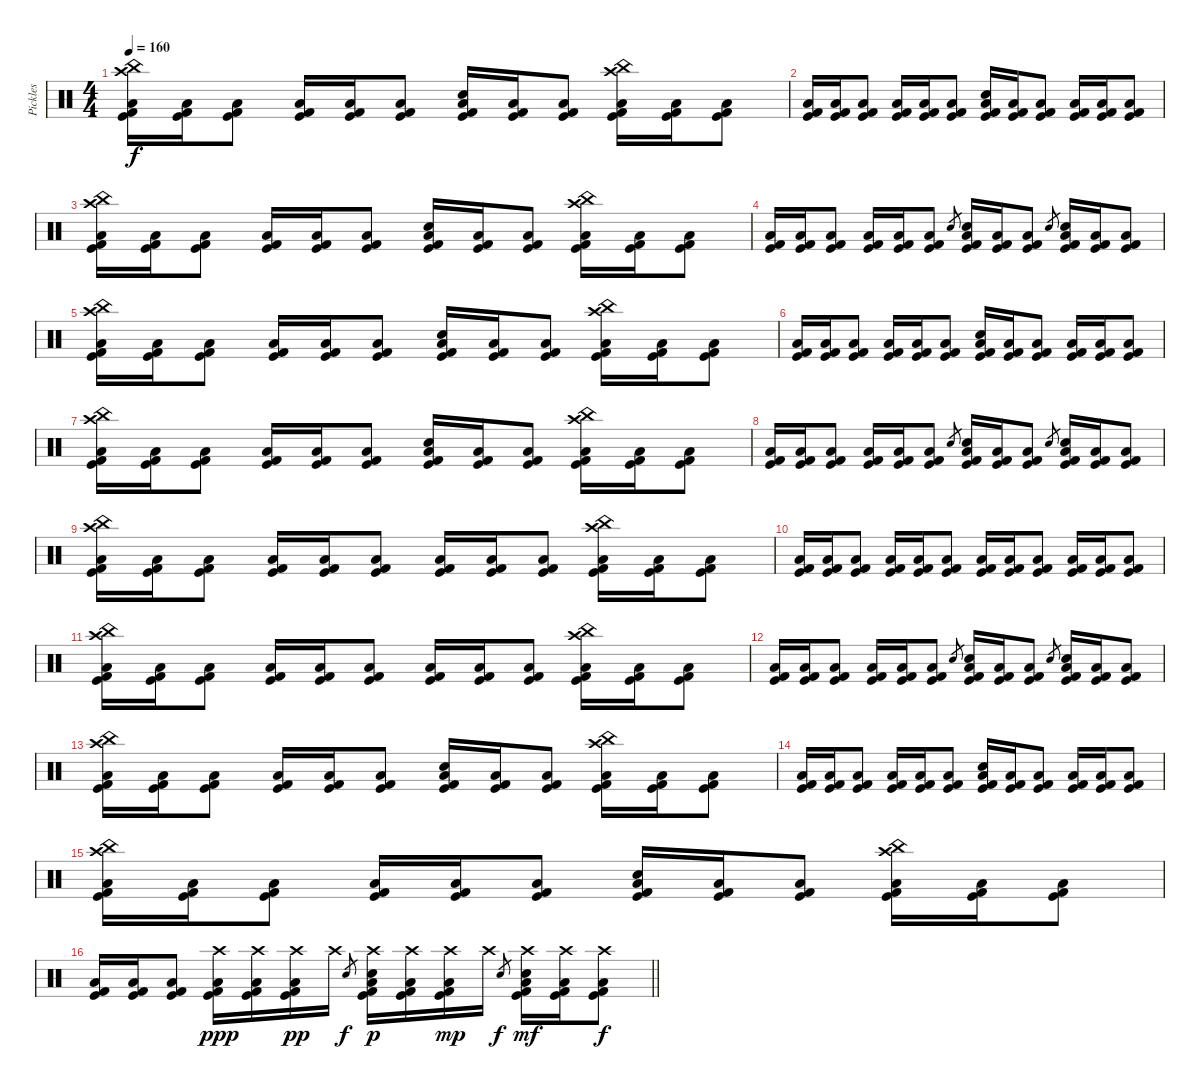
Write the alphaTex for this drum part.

\track ("Pickles" "Pickles") {instrument percussion}
\staff {score}
\articulation defaults
\ts (4 4)
\tempo 160
\clef neutral
\ks c
("Kick (hit) 2" "Kick (hit)" "Low Tom (hit)" "China (hit)" "Crash high (hit)").16{dy f} ("Kick (hit) 2" "Kick (hit)" "Low Tom (hit)").16 ("Kick (hit) 2" "Kick (hit)" "Low Tom (hit)").8 ("Kick (hit) 2" "Kick (hit)" "Low Tom (hit)").16 ("Kick (hit) 2" "Kick (hit)" "Low Tom (hit)").16 ("Kick (hit) 2" "Kick (hit)" "Low Tom (hit)").8 ("Kick (hit) 2" "Kick (hit)" "Low Tom (hit)" "Electric Snare (hit)").16 ("Kick (hit) 2" "Kick (hit)" "Low Tom (hit)").16 ("Kick (hit) 2" "Kick (hit)" "Low Tom (hit)").8 ("Kick (hit) 2" "Kick (hit)" "Low Tom (hit)" "China (hit)" "Crash high (hit)").16 ("Kick (hit) 2" "Kick (hit)" "Low Tom (hit)").16 ("Kick (hit) 2" "Kick (hit)" "Low Tom (hit)").8 |
("Kick (hit) 2" "Kick (hit)" "Low Tom (hit)").16 ("Kick (hit) 2" "Kick (hit)" "Low Tom (hit)").16 ("Kick (hit) 2" "Kick (hit)" "Low Tom (hit)").8 ("Kick (hit) 2" "Kick (hit)" "Low Tom (hit)").16 ("Kick (hit) 2" "Kick (hit)" "Low Tom (hit)").16 ("Kick (hit) 2" "Kick (hit)" "Low Tom (hit)").8 ("Kick (hit) 2" "Kick (hit)" "Low Tom (hit)" "Electric Snare (hit)").16 ("Kick (hit) 2" "Kick (hit)" "Low Tom (hit)").16 ("Kick (hit) 2" "Kick (hit)" "Low Tom (hit)").8 ("Kick (hit) 2" "Kick (hit)" "Low Tom (hit)").16 ("Kick (hit) 2" "Kick (hit)" "Low Tom (hit)").16 ("Kick (hit) 2" "Kick (hit)" "Low Tom (hit)").8 |
("Kick (hit) 2" "Kick (hit)" "Low Tom (hit)" "China (hit)" "Crash high (hit)").16 ("Kick (hit) 2" "Kick (hit)" "Low Tom (hit)").16 ("Kick (hit) 2" "Kick (hit)" "Low Tom (hit)").8 ("Kick (hit) 2" "Kick (hit)" "Low Tom (hit)").16 ("Kick (hit) 2" "Kick (hit)" "Low Tom (hit)").16 ("Kick (hit) 2" "Kick (hit)" "Low Tom (hit)").8 ("Kick (hit) 2" "Kick (hit)" "Low Tom (hit)" "Electric Snare (hit)").16 ("Kick (hit) 2" "Kick (hit)" "Low Tom (hit)").16 ("Kick (hit) 2" "Kick (hit)" "Low Tom (hit)").8 ("Kick (hit) 2" "Kick (hit)" "Low Tom (hit)" "China (hit)" "Crash high (hit)").16 ("Kick (hit) 2" "Kick (hit)" "Low Tom (hit)").16 ("Kick (hit) 2" "Kick (hit)" "Low Tom (hit)").8 |
("Kick (hit) 2" "Kick (hit)" "Low Tom (hit)").16 ("Kick (hit) 2" "Kick (hit)" "Low Tom (hit)").16 ("Kick (hit) 2" "Kick (hit)" "Low Tom (hit)").8 ("Kick (hit) 2" "Kick (hit)" "Low Tom (hit)").16 ("Kick (hit) 2" "Kick (hit)" "Low Tom (hit)").16 ("Kick (hit) 2" "Kick (hit)" "Low Tom (hit)").8 "Electric Snare (hit)".8{gr} ("Kick (hit) 2" "Kick (hit)" "Low Tom (hit)" "Electric Snare (hit)").16 ("Kick (hit) 2" "Kick (hit)" "Low Tom (hit)").16 ("Kick (hit) 2" "Kick (hit)" "Low Tom (hit)").8 "Electric Snare (hit)".8{gr} ("Kick (hit) 2" "Kick (hit)" "Low Tom (hit)" "Electric Snare (hit)").16 ("Kick (hit) 2" "Kick (hit)" "Low Tom (hit)").16 ("Kick (hit) 2" "Kick (hit)" "Low Tom (hit)").8 |
("Kick (hit) 2" "Kick (hit)" "Low Tom (hit)" "China (hit)" "Crash high (hit)").16 ("Kick (hit) 2" "Kick (hit)" "Low Tom (hit)").16 ("Kick (hit) 2" "Kick (hit)" "Low Tom (hit)").8 ("Kick (hit) 2" "Kick (hit)" "Low Tom (hit)").16 ("Kick (hit) 2" "Kick (hit)" "Low Tom (hit)").16 ("Kick (hit) 2" "Kick (hit)" "Low Tom (hit)").8 ("Kick (hit) 2" "Kick (hit)" "Low Tom (hit)" "Electric Snare (hit)").16 ("Kick (hit) 2" "Kick (hit)" "Low Tom (hit)").16 ("Kick (hit) 2" "Kick (hit)" "Low Tom (hit)").8 ("Kick (hit) 2" "Kick (hit)" "Low Tom (hit)" "China (hit)" "Crash high (hit)").16 ("Kick (hit) 2" "Kick (hit)" "Low Tom (hit)").16 ("Kick (hit) 2" "Kick (hit)" "Low Tom (hit)").8 |
("Kick (hit) 2" "Kick (hit)" "Low Tom (hit)").16 ("Kick (hit) 2" "Kick (hit)" "Low Tom (hit)").16 ("Kick (hit) 2" "Kick (hit)" "Low Tom (hit)").8 ("Kick (hit) 2" "Kick (hit)" "Low Tom (hit)").16 ("Kick (hit) 2" "Kick (hit)" "Low Tom (hit)").16 ("Kick (hit) 2" "Kick (hit)" "Low Tom (hit)").8 ("Kick (hit) 2" "Kick (hit)" "Low Tom (hit)" "Electric Snare (hit)").16 ("Kick (hit) 2" "Kick (hit)" "Low Tom (hit)").16 ("Kick (hit) 2" "Kick (hit)" "Low Tom (hit)").8 ("Kick (hit) 2" "Kick (hit)" "Low Tom (hit)").16 ("Kick (hit) 2" "Kick (hit)" "Low Tom (hit)").16 ("Kick (hit) 2" "Kick (hit)" "Low Tom (hit)").8 |
("Kick (hit) 2" "Kick (hit)" "Low Tom (hit)" "China (hit)" "Crash high (hit)").16 ("Kick (hit) 2" "Kick (hit)" "Low Tom (hit)").16 ("Kick (hit) 2" "Kick (hit)" "Low Tom (hit)").8 ("Kick (hit) 2" "Kick (hit)" "Low Tom (hit)").16 ("Kick (hit) 2" "Kick (hit)" "Low Tom (hit)").16 ("Kick (hit) 2" "Kick (hit)" "Low Tom (hit)").8 ("Kick (hit) 2" "Kick (hit)" "Low Tom (hit)" "Electric Snare (hit)").16 ("Kick (hit) 2" "Kick (hit)" "Low Tom (hit)").16 ("Kick (hit) 2" "Kick (hit)" "Low Tom (hit)").8 ("Kick (hit) 2" "Kick (hit)" "Low Tom (hit)" "China (hit)" "Crash high (hit)").16 ("Kick (hit) 2" "Kick (hit)" "Low Tom (hit)").16 ("Kick (hit) 2" "Kick (hit)" "Low Tom (hit)").8 |
("Kick (hit) 2" "Kick (hit)" "Low Tom (hit)").16 ("Kick (hit) 2" "Kick (hit)" "Low Tom (hit)").16 ("Kick (hit) 2" "Kick (hit)" "Low Tom (hit)").8 ("Kick (hit) 2" "Kick (hit)" "Low Tom (hit)").16 ("Kick (hit) 2" "Kick (hit)" "Low Tom (hit)").16 ("Kick (hit) 2" "Kick (hit)" "Low Tom (hit)").8 "Electric Snare (hit)".8{gr} ("Kick (hit) 2" "Kick (hit)" "Low Tom (hit)" "Electric Snare (hit)").16 ("Kick (hit) 2" "Kick (hit)" "Low Tom (hit)").16 ("Kick (hit) 2" "Kick (hit)" "Low Tom (hit)").8 "Electric Snare (hit)".8{gr} ("Kick (hit) 2" "Kick (hit)" "Low Tom (hit)" "Electric Snare (hit)").16 ("Kick (hit) 2" "Kick (hit)" "Low Tom (hit)").16 ("Kick (hit) 2" "Kick (hit)" "Low Tom (hit)").8 |
("Kick (hit) 2" "Kick (hit)" "Low Tom (hit)" "China (hit)" "Crash high (hit)").16 ("Kick (hit) 2" "Kick (hit)" "Low Tom (hit)").16 ("Kick (hit) 2" "Kick (hit)" "Low Tom (hit)").8 ("Kick (hit) 2" "Kick (hit)" "Low Tom (hit)").16 ("Kick (hit) 2" "Kick (hit)" "Low Tom (hit)").16 ("Kick (hit) 2" "Kick (hit)" "Low Tom (hit)").8 ("Kick (hit) 2" "Kick (hit)" "Low Tom (hit)").16 ("Kick (hit) 2" "Kick (hit)" "Low Tom (hit)").16 ("Kick (hit) 2" "Kick (hit)" "Low Tom (hit)").8 ("Kick (hit) 2" "Kick (hit)" "Low Tom (hit)" "China (hit)" "Crash high (hit)").16 ("Kick (hit) 2" "Kick (hit)" "Low Tom (hit)").16 ("Kick (hit) 2" "Kick (hit)" "Low Tom (hit)").8 |
("Kick (hit) 2" "Kick (hit)" "Low Tom (hit)").16 ("Kick (hit) 2" "Kick (hit)" "Low Tom (hit)").16 ("Kick (hit) 2" "Kick (hit)" "Low Tom (hit)").8 ("Kick (hit) 2" "Kick (hit)" "Low Tom (hit)").16 ("Kick (hit) 2" "Kick (hit)" "Low Tom (hit)").16 ("Kick (hit) 2" "Kick (hit)" "Low Tom (hit)").8 ("Kick (hit) 2" "Kick (hit)" "Low Tom (hit)").16 ("Kick (hit) 2" "Kick (hit)" "Low Tom (hit)").16 ("Kick (hit) 2" "Kick (hit)" "Low Tom (hit)").8 ("Kick (hit) 2" "Kick (hit)" "Low Tom (hit)").16 ("Kick (hit) 2" "Kick (hit)" "Low Tom (hit)").16 ("Kick (hit) 2" "Kick (hit)" "Low Tom (hit)").8 |
("Kick (hit) 2" "Kick (hit)" "Low Tom (hit)" "China (hit)" "Crash high (hit)").16 ("Kick (hit) 2" "Kick (hit)" "Low Tom (hit)").16 ("Kick (hit) 2" "Kick (hit)" "Low Tom (hit)").8 ("Kick (hit) 2" "Kick (hit)" "Low Tom (hit)").16 ("Kick (hit) 2" "Kick (hit)" "Low Tom (hit)").16 ("Kick (hit) 2" "Kick (hit)" "Low Tom (hit)").8 ("Kick (hit) 2" "Kick (hit)" "Low Tom (hit)").16 ("Kick (hit) 2" "Kick (hit)" "Low Tom (hit)").16 ("Kick (hit) 2" "Kick (hit)" "Low Tom (hit)").8 ("Kick (hit) 2" "Kick (hit)" "Low Tom (hit)" "China (hit)" "Crash high (hit)").16 ("Kick (hit) 2" "Kick (hit)" "Low Tom (hit)").16 ("Kick (hit) 2" "Kick (hit)" "Low Tom (hit)").8 |
("Kick (hit) 2" "Kick (hit)" "Low Tom (hit)").16 ("Kick (hit) 2" "Kick (hit)" "Low Tom (hit)").16 ("Kick (hit) 2" "Kick (hit)" "Low Tom (hit)").8 ("Kick (hit) 2" "Kick (hit)" "Low Tom (hit)").16 ("Kick (hit) 2" "Kick (hit)" "Low Tom (hit)").16 ("Kick (hit) 2" "Kick (hit)" "Low Tom (hit)").8 "Electric Snare (hit)".8{gr} ("Kick (hit) 2" "Kick (hit)" "Low Tom (hit)" "Electric Snare (hit)").16 ("Kick (hit) 2" "Kick (hit)" "Low Tom (hit)").16 ("Kick (hit) 2" "Kick (hit)" "Low Tom (hit)").8 "Electric Snare (hit)".8{gr} ("Kick (hit) 2" "Kick (hit)" "Low Tom (hit)" "Electric Snare (hit)").16 ("Kick (hit) 2" "Kick (hit)" "Low Tom (hit)").16 ("Kick (hit) 2" "Kick (hit)" "Low Tom (hit)").8 |
("Kick (hit) 2" "Kick (hit)" "Low Tom (hit)" "China (hit)" "Crash high (hit)").16 ("Kick (hit) 2" "Kick (hit)" "Low Tom (hit)").16 ("Kick (hit) 2" "Kick (hit)" "Low Tom (hit)").8 ("Kick (hit) 2" "Kick (hit)" "Low Tom (hit)").16 ("Kick (hit) 2" "Kick (hit)" "Low Tom (hit)").16 ("Kick (hit) 2" "Kick (hit)" "Low Tom (hit)").8 ("Kick (hit) 2" "Kick (hit)" "Low Tom (hit)" "Electric Snare (hit)").16 ("Kick (hit) 2" "Kick (hit)" "Low Tom (hit)").16 ("Kick (hit) 2" "Kick (hit)" "Low Tom (hit)").8 ("Kick (hit) 2" "Kick (hit)" "Low Tom (hit)" "China (hit)" "Crash high (hit)").16 ("Kick (hit) 2" "Kick (hit)" "Low Tom (hit)").16 ("Kick (hit) 2" "Kick (hit)" "Low Tom (hit)").8 |
("Kick (hit) 2" "Kick (hit)" "Low Tom (hit)").16 ("Kick (hit) 2" "Kick (hit)" "Low Tom (hit)").16 ("Kick (hit) 2" "Kick (hit)" "Low Tom (hit)").8 ("Kick (hit) 2" "Kick (hit)" "Low Tom (hit)").16 ("Kick (hit) 2" "Kick (hit)" "Low Tom (hit)").16 ("Kick (hit) 2" "Kick (hit)" "Low Tom (hit)").8 ("Kick (hit) 2" "Kick (hit)" "Low Tom (hit)" "Electric Snare (hit)").16 ("Kick (hit) 2" "Kick (hit)" "Low Tom (hit)").16 ("Kick (hit) 2" "Kick (hit)" "Low Tom (hit)").8 ("Kick (hit) 2" "Kick (hit)" "Low Tom (hit)").16 ("Kick (hit) 2" "Kick (hit)" "Low Tom (hit)").16 ("Kick (hit) 2" "Kick (hit)" "Low Tom (hit)").8 |
("Kick (hit) 2" "Kick (hit)" "Low Tom (hit)" "China (hit)" "Crash high (hit)").16 ("Kick (hit) 2" "Kick (hit)" "Low Tom (hit)").16 ("Kick (hit) 2" "Kick (hit)" "Low Tom (hit)").8 ("Kick (hit) 2" "Kick (hit)" "Low Tom (hit)").16 ("Kick (hit) 2" "Kick (hit)" "Low Tom (hit)").16 ("Kick (hit) 2" "Kick (hit)" "Low Tom (hit)").8 ("Kick (hit) 2" "Kick (hit)" "Low Tom (hit)" "Electric Snare (hit)").16 ("Kick (hit) 2" "Kick (hit)" "Low Tom (hit)").16 ("Kick (hit) 2" "Kick (hit)" "Low Tom (hit)").8 ("Kick (hit) 2" "Kick (hit)" "Low Tom (hit)" "China (hit)" "Crash high (hit)").16 ("Kick (hit) 2" "Kick (hit)" "Low Tom (hit)").16 ("Kick (hit) 2" "Kick (hit)" "Low Tom (hit)").8 |
\barLineRight lightlight
("Kick (hit) 2" "Kick (hit)" "Low Tom (hit)").16 ("Kick (hit) 2" "Kick (hit)" "Low Tom (hit)").16 ("Kick (hit) 2" "Kick (hit)" "Low Tom (hit)").8 ("Kick (hit) 2" "Kick (hit)" "Low Tom (hit)" "Crash high (hit)").16{dy ppp} ("Kick (hit) 2" "Kick (hit)" "Low Tom (hit)" "Crash high (hit)").16 ("Kick (hit) 2" "Kick (hit)" "Low Tom (hit)" "Crash high (hit)").16{dy pp} "Crash high (hit)".16 "Electric Snare (hit)".8{gr dy f} ("Kick (hit) 2" "Kick (hit)" "Low Tom (hit)" "Electric Snare (hit)" "Crash high (hit)").16{dy p} ("Kick (hit) 2" "Kick (hit)" "Low Tom (hit)" "Crash high (hit)").16 ("Kick (hit) 2" "Kick (hit)" "Low Tom (hit)" "Crash high (hit)").16{dy mp} "Crash high (hit)".16 "Electric Snare (hit)".8{gr dy f} ("Kick (hit) 2" "Kick (hit)" "Low Tom (hit)" "Electric Snare (hit)" "Crash high (hit)").16{dy mf} ("Kick (hit) 2" "Kick (hit)" "Low Tom (hit)" "Crash high (hit)").16 ("Kick (hit) 2" "Kick (hit)" "Low Tom (hit)" "Crash high (hit)").8{dy f}
